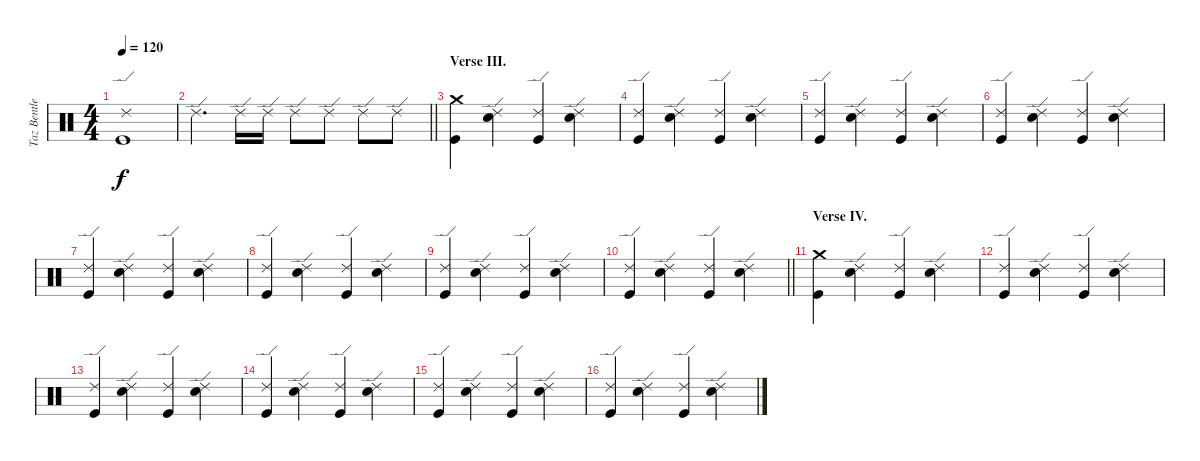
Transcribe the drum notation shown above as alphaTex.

\track ("Taz Bentley - drums" "Taz Bentle") {instrument percussion}
\staff
\articulation defaults
\ts (4 4)
\tempo 120
\clef neutral
\ks c
("Ride (edge) 2" "Kick (hit)").1{dy f} |
\barLineRight lightlight "Ride (edge) 2".4{d} "Ride (edge) 2".16 "Ride (edge) 2".16 "Ride (edge) 2".8 "Ride (edge) 2".8 "Ride (edge) 2".8 "Ride (edge) 2".8
|
\section ("" "Verse III.")
("Crash medium (hit)" "Kick (hit)").4 ("Ride (edge) 2" "Electric Snare (hit)").4 ("Ride (edge) 2" "Kick (hit)").4 ("Ride (edge) 2" "Electric Snare (hit)").4 |
("Ride (edge) 2" "Kick (hit)").4 ("Ride (edge) 2" "Electric Snare (hit)").4 ("Ride (edge) 2" "Kick (hit)").4 ("Ride (edge) 2" "Electric Snare (hit)").4 |
("Ride (edge) 2" "Kick (hit)").4 ("Ride (edge) 2" "Electric Snare (hit)").4 ("Ride (edge) 2" "Kick (hit)").4 ("Ride (edge) 2" "Electric Snare (hit)").4 |
("Ride (edge) 2" "Kick (hit)").4 ("Ride (edge) 2" "Electric Snare (hit)").4 ("Ride (edge) 2" "Kick (hit)").4 ("Ride (edge) 2" "Electric Snare (hit)").4 |
("Ride (edge) 2" "Kick (hit)").4 ("Ride (edge) 2" "Electric Snare (hit)").4 ("Ride (edge) 2" "Kick (hit)").4 ("Ride (edge) 2" "Electric Snare (hit)").4 |
("Ride (edge) 2" "Kick (hit)").4 ("Ride (edge) 2" "Electric Snare (hit)").4 ("Ride (edge) 2" "Kick (hit)").4 ("Ride (edge) 2" "Electric Snare (hit)").4 |
("Ride (edge) 2" "Kick (hit)").4 ("Ride (edge) 2" "Electric Snare (hit)").4 ("Ride (edge) 2" "Kick (hit)").4 ("Ride (edge) 2" "Electric Snare (hit)").4 |
\barLineRight lightlight
("Ride (edge) 2" "Kick (hit)").4 ("Ride (edge) 2" "Electric Snare (hit)").4 ("Ride (edge) 2" "Kick (hit)").4 ("Ride (edge) 2" "Electric Snare (hit)").4 |
\section ("" "Verse IV.")
("Crash medium (hit)" "Kick (hit)").4 ("Ride (edge) 2" "Electric Snare (hit)").4 ("Ride (edge) 2" "Kick (hit)").4 ("Ride (edge) 2" "Electric Snare (hit)").4 |
("Ride (edge) 2" "Kick (hit)").4 ("Ride (edge) 2" "Electric Snare (hit)").4 ("Ride (edge) 2" "Kick (hit)").4 ("Ride (edge) 2" "Electric Snare (hit)").4 |
("Ride (edge) 2" "Kick (hit)").4 ("Ride (edge) 2" "Electric Snare (hit)").4 ("Ride (edge) 2" "Kick (hit)").4 ("Ride (edge) 2" "Electric Snare (hit)").4 |
("Ride (edge) 2" "Kick (hit)").4 ("Ride (edge) 2" "Electric Snare (hit)").4 ("Ride (edge) 2" "Kick (hit)").4 ("Ride (edge) 2" "Electric Snare (hit)").4 |
("Ride (edge) 2" "Kick (hit)").4 ("Ride (edge) 2" "Electric Snare (hit)").4 ("Ride (edge) 2" "Kick (hit)").4 ("Ride (edge) 2" "Electric Snare (hit)").4 |
("Ride (edge) 2" "Kick (hit)").4 ("Ride (edge) 2" "Electric Snare (hit)").4 ("Ride (edge) 2" "Kick (hit)").4 ("Ride (edge) 2" "Electric Snare (hit)").4
